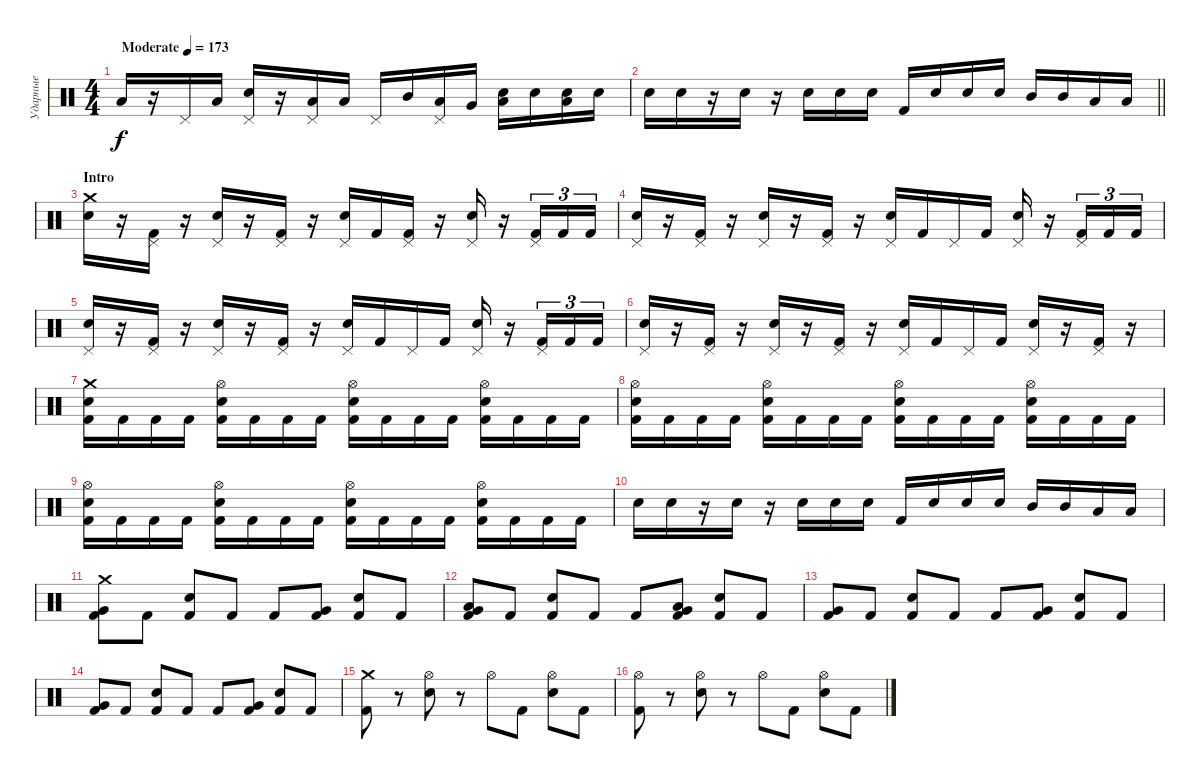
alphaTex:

\track ("Ударные" "Ударные") {instrument percussion}
\staff {score}
\articulation defaults
\ts (4 4)
\tempo (173 "Moderate")
\clef neutral
\ks c "Low Floor Tom (hit)".16{dy f}
r.16 "Pedal Hi-Hat (hit)".16 "Low Floor Tom (hit)".16 ("Pedal Hi-Hat (hit)" "Snare (hit) 2").16 r.16 ("Pedal Hi-Hat (hit)" "Low Floor Tom (hit)").16 "Low Floor Tom (hit)".16 "Pedal Hi-Hat (hit)".16 "Mid Tom (hit)".16 ("Pedal Hi-Hat (hit)" "Low Tom (hit)").16 "Very Low Tom (hit)".16 ("Low Floor Tom (hit)" "Snare (hit) 2").16 "Snare (hit) 2".16 ("Low Floor Tom (hit)" "Snare (hit) 2").16 "Snare (hit) 2".16 |
\barLineRight lightlight "Snare (hit) 2".16 "Snare (hit) 2".16
r.16 "Snare (hit) 2".16 r.16 "Snare (hit) 2".16 "Snare (hit) 2".16 "Snare (hit) 2".16 "Kick (hit) 2".16 "Snare (hit) 2".16 "Snare (hit) 2".16 "Snare (hit) 2".16 "Mid Tom (hit)".16 "Mid Tom (hit)".16 "Low Tom (hit)".16 "Low Tom (hit)".16 |
\section ("" "Intro")
("Crash medium (hit)" "Snare (hit) 2").16 r.16 ("Pedal Hi-Hat (hit)" "Kick (hit) 2").16 r.16 ("Pedal Hi-Hat (hit)" "Snare (hit) 2").16 r.16 ("Pedal Hi-Hat (hit)" "Kick (hit) 2").16 r.16 ("Pedal Hi-Hat (hit)" "Snare (hit) 2").16 "Kick (hit) 2".16 ("Pedal Hi-Hat (hit)" "Kick (hit) 2").16 r.16 ("Pedal Hi-Hat (hit)" "Snare (hit) 2").16 r.16 ("Pedal Hi-Hat (hit)" "Kick (hit) 2").16{tu (3 2)} "Kick (hit) 2".16{tu (3 2)} "Kick (hit) 2".16{tu (3 2)} |
("Pedal Hi-Hat (hit)" "Snare (hit) 2").16 r.16 ("Pedal Hi-Hat (hit)" "Kick (hit) 2").16 r.16 ("Pedal Hi-Hat (hit)" "Snare (hit) 2").16 r.16 ("Pedal Hi-Hat (hit)" "Kick (hit) 2").16 r.16 ("Pedal Hi-Hat (hit)" "Snare (hit) 2").16 "Kick (hit) 2".16 "Pedal Hi-Hat (hit)".16 "Kick (hit) 2".16 ("Pedal Hi-Hat (hit)" "Snare (hit) 2").16 r.16 ("Pedal Hi-Hat (hit)" "Kick (hit) 2").16{tu (3 2)} "Kick (hit) 2".16{tu (3 2)} "Kick (hit) 2".16{tu (3 2)} |
("Pedal Hi-Hat (hit)" "Snare (hit) 2").16 r.16 ("Pedal Hi-Hat (hit)" "Kick (hit) 2").16 r.16 ("Pedal Hi-Hat (hit)" "Snare (hit) 2").16 r.16 ("Pedal Hi-Hat (hit)" "Kick (hit) 2").16 r.16 ("Pedal Hi-Hat (hit)" "Snare (hit) 2").16 "Kick (hit) 2".16 "Pedal Hi-Hat (hit)".16 "Kick (hit) 2".16 ("Pedal Hi-Hat (hit)" "Snare (hit) 2").16 r.16 ("Pedal Hi-Hat (hit)" "Kick (hit) 2").16{tu (3 2)} "Kick (hit) 2".16{tu (3 2)} "Kick (hit) 2".16{tu (3 2)} |
("Pedal Hi-Hat (hit)" "Snare (hit) 2").16 r.16 ("Pedal Hi-Hat (hit)" "Kick (hit) 2").16 r.16 ("Pedal Hi-Hat (hit)" "Snare (hit) 2").16 r.16 ("Pedal Hi-Hat (hit)" "Kick (hit) 2").16 r.16 ("Pedal Hi-Hat (hit)" "Snare (hit) 2").16 "Kick (hit) 2".16 "Pedal Hi-Hat (hit)".16 "Kick (hit) 2".16 ("Pedal Hi-Hat (hit)" "Snare (hit) 2").16 r.16 ("Pedal Hi-Hat (hit)" "Kick (hit) 2").16 r.16 |
("Crash medium (hit)" "Snare (hit) 2" "Kick (hit) 2").16 "Kick (hit) 2".16 "Kick (hit) 2".16 "Kick (hit) 2".16 ("Hi-Hat (open)" "Snare (hit) 2" "Kick (hit) 2").16 "Kick (hit) 2".16 "Kick (hit) 2".16 "Kick (hit) 2".16 ("Hi-Hat (open)" "Snare (hit) 2" "Kick (hit) 2").16 "Kick (hit) 2".16 "Kick (hit) 2".16 "Kick (hit) 2".16 ("Hi-Hat (open)" "Snare (hit) 2" "Kick (hit) 2").16 "Kick (hit) 2".16 "Kick (hit) 2".16 "Kick (hit) 2".16 |
("Hi-Hat (open)" "Snare (hit) 2" "Kick (hit) 2").16 "Kick (hit) 2".16 "Kick (hit) 2".16 "Kick (hit) 2".16 ("Hi-Hat (open)" "Snare (hit) 2" "Kick (hit) 2").16 "Kick (hit) 2".16 "Kick (hit) 2".16 "Kick (hit) 2".16 ("Hi-Hat (open)" "Snare (hit) 2" "Kick (hit) 2").16 "Kick (hit) 2".16 "Kick (hit) 2".16 "Kick (hit) 2".16 ("Hi-Hat (open)" "Snare (hit) 2" "Kick (hit) 2").16 "Kick (hit) 2".16 "Kick (hit) 2".16 "Kick (hit) 2".16 |
("Hi-Hat (open)" "Snare (hit) 2" "Kick (hit) 2").16 "Kick (hit) 2".16 "Kick (hit) 2".16 "Kick (hit) 2".16 ("Hi-Hat (open)" "Snare (hit) 2" "Kick (hit) 2").16 "Kick (hit) 2".16 "Kick (hit) 2".16 "Kick (hit) 2".16 ("Hi-Hat (open)" "Snare (hit) 2" "Kick (hit) 2").16 "Kick (hit) 2".16 "Kick (hit) 2".16 "Kick (hit) 2".16 ("Hi-Hat (open)" "Snare (hit) 2" "Kick (hit) 2").16 "Kick (hit) 2".16 "Kick (hit) 2".16 "Kick (hit) 2".16 |
"Snare (hit) 2".16 "Snare (hit) 2".16 r.16 "Snare (hit) 2".16 r.16 "Snare (hit) 2".16 "Snare (hit) 2".16 "Snare (hit) 2".16 "Kick (hit) 2".16 "Snare (hit) 2".16 "Snare (hit) 2".16 "Snare (hit) 2".16 "Mid Tom (hit)".16 "Mid Tom (hit)".16 "Low Tom (hit)".16 "Low Tom (hit)".16 |
("Crash medium (hit)" "Very Low Tom (hit)" "Kick (hit) 2").8 "Kick (hit) 2".8 ("Snare (hit) 2" "Kick (hit) 2").8 "Kick (hit) 2".8 "Kick (hit) 2".8 ("Very Low Tom (hit)" "Kick (hit) 2").8 ("Snare (hit) 2" "Kick (hit) 2").8 "Kick (hit) 2".8 |
("Low Floor Tom (hit)" "Very Low Tom (hit)" "Kick (hit) 2").8 "Kick (hit) 2".8 ("Snare (hit) 2" "Kick (hit) 2").8 "Kick (hit) 2".8 "Kick (hit) 2".8 ("Low Floor Tom (hit)" "Very Low Tom (hit)" "Kick (hit) 2").8 ("Snare (hit) 2" "Kick (hit) 2").8 "Kick (hit) 2".8 |
("Very Low Tom (hit)" "Kick (hit) 2").8 "Kick (hit) 2".8 ("Snare (hit) 2" "Kick (hit) 2").8 "Kick (hit) 2".8 "Kick (hit) 2".8 ("Very Low Tom (hit)" "Kick (hit) 2").8 ("Snare (hit) 2" "Kick (hit) 2").8 "Kick (hit) 2".8 |
("Very Low Tom (hit)" "Kick (hit) 2").8 "Kick (hit) 2".8 ("Snare (hit) 2" "Kick (hit) 2").8 "Kick (hit) 2".8 "Kick (hit) 2".8 ("Very Low Tom (hit)" "Kick (hit) 2").8 ("Snare (hit) 2" "Kick (hit) 2").8 "Kick (hit) 2".8 |
("Crash medium (hit)" "Kick (hit) 2").8 r.8 ("Hi-Hat (open)" "Snare (hit) 2").8 r.8 "Hi-Hat (open)".8 "Kick (hit) 2".8 ("Hi-Hat (open)" "Snare (hit) 2").8 "Kick (hit) 2".8 |
("Hi-Hat (open)" "Kick (hit) 2").8 r.8 ("Hi-Hat (open)" "Snare (hit) 2").8 r.8 "Hi-Hat (open)".8 "Kick (hit) 2".8 ("Hi-Hat (open)" "Snare (hit) 2").8 "Kick (hit) 2".8
